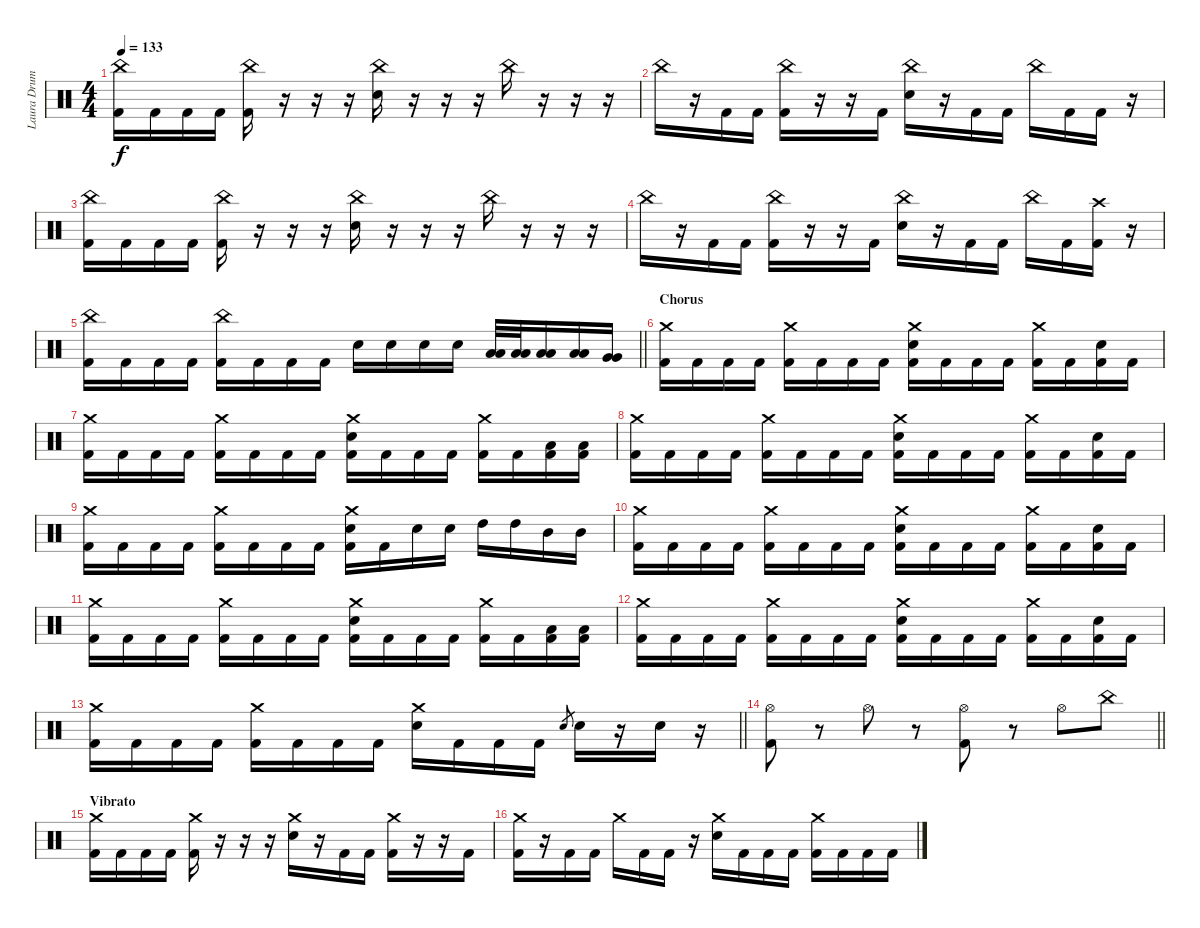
\track ("Laura Drums" "Laura Drum") {instrument percussion}
\staff {score}
\articulation defaults
\ts (4 4)
\tempo 133
\clef neutral
\ks c
("China (hit)" "Kick (hit) 2").16{dy f} "Kick (hit) 2".16 "Kick (hit) 2".16 "Kick (hit) 2".16 ("China (hit)" "Kick (hit) 2").16 r.16 r.16 r.16 ("China (hit)" "Electric Snare (hit)").16 r.16 r.16 r.16 "China (hit)".16 r.16 r.16 r.16 |
"China (hit)".16 r.16 "Kick (hit) 2".16 "Kick (hit) 2".16 ("China (hit)" "Kick (hit) 2").16 r.16 r.16 "Kick (hit) 2".16 ("China (hit)" "Electric Snare (hit)").16 r.16 "Kick (hit) 2".16 "Kick (hit) 2".16 "China (hit)".16 "Kick (hit) 2".16 "Kick (hit) 2".16 r.16 |
("China (hit)" "Kick (hit) 2").16 "Kick (hit) 2".16 "Kick (hit) 2".16 "Kick (hit) 2".16 ("China (hit)" "Kick (hit) 2").16 r.16 r.16 r.16 ("China (hit)" "Electric Snare (hit)").16 r.16 r.16 r.16 "China (hit)".16 r.16 r.16 r.16 |
"China (hit)".16 r.16 "Kick (hit) 2".16 "Kick (hit) 2".16 ("China (hit)" "Kick (hit) 2").16 r.16 r.16 "Kick (hit) 2".16 ("China (hit)" "Electric Snare (hit)").16 r.16 "Kick (hit) 2".16 "Kick (hit) 2".16 "China (hit)".16 "Kick (hit) 2".16 ("Crash high (hit)" "Kick (hit) 2").16 r.16 |
\barLineRight lightlight
("China (hit)" "Kick (hit) 2").16 "Kick (hit) 2".16 "Kick (hit) 2".16 "Kick (hit) 2".16 ("China (hit)" "Kick (hit) 2").16 "Kick (hit) 2".16 "Kick (hit) 2".16 "Kick (hit) 2".16 "Electric Snare (hit)".16 "Electric Snare (hit)".16 "Electric Snare (hit)".16 "Electric Snare (hit)".16 ("Low Tom (hit)" "Low Tom (hit)").32 ("Low Tom (hit)" "Low Tom (hit)").32 ("Low Tom (hit)" "Low Tom (hit)").16 ("Low Tom (hit)" "Low Tom (hit)").16 ("Very Low Tom (hit)" "Very Low Tom (hit)").16 |
\section ("" "Chorus")
("Crash medium (hit)" "Kick (hit) 2").16 "Kick (hit) 2".16 "Kick (hit) 2".16 "Kick (hit) 2".16 ("Crash medium (hit)" "Kick (hit) 2").16 "Kick (hit) 2".16 "Kick (hit) 2".16 "Kick (hit) 2".16 ("Crash medium (hit)" "Electric Snare (hit)" "Kick (hit) 2").16 "Kick (hit) 2".16 "Kick (hit) 2".16 "Kick (hit) 2".16 ("Crash medium (hit)" "Kick (hit) 2").16 "Kick (hit) 2".16 ("Electric Snare (hit)" "Kick (hit) 2").16 "Kick (hit) 2".16 |
("Crash medium (hit)" "Kick (hit) 2").16 "Kick (hit) 2".16 "Kick (hit) 2".16 "Kick (hit) 2".16 ("Crash medium (hit)" "Kick (hit) 2").16 "Kick (hit) 2".16 "Kick (hit) 2".16 "Kick (hit) 2".16 ("Crash medium (hit)" "Electric Snare (hit)" "Kick (hit) 2").16 "Kick (hit) 2".16 "Kick (hit) 2".16 "Kick (hit) 2".16 ("Crash medium (hit)" "Kick (hit) 2").16 "Kick (hit) 2".16 ("Low Tom (hit)" "Kick (hit) 2").16 ("Low Tom (hit)" "Kick (hit) 2").16 |
("Crash medium (hit)" "Kick (hit) 2").16 "Kick (hit) 2".16 "Kick (hit) 2".16 "Kick (hit) 2".16 ("Crash medium (hit)" "Kick (hit) 2").16 "Kick (hit) 2".16 "Kick (hit) 2".16 "Kick (hit) 2".16 ("Crash medium (hit)" "Electric Snare (hit)" "Kick (hit) 2").16 "Kick (hit) 2".16 "Kick (hit) 2".16 "Kick (hit) 2".16 ("Crash medium (hit)" "Kick (hit) 2").16 "Kick (hit) 2".16 ("Electric Snare (hit)" "Kick (hit) 2").16 "Kick (hit) 2".16 |
("Crash medium (hit)" "Kick (hit) 2").16 "Kick (hit) 2".16 "Kick (hit) 2".16 "Kick (hit) 2".16 ("Crash medium (hit)" "Kick (hit) 2").16 "Kick (hit) 2".16 "Kick (hit) 2".16 "Kick (hit) 2".16 ("Crash medium (hit)" "Electric Snare (hit)" "Kick (hit) 2").16 "Kick (hit) 2".16 "Electric Snare (hit)".16 "Electric Snare (hit)".16 "High Tom (hit)".16 "High Tom (hit)".16 "Mid Tom (hit)".16 "Mid Tom (hit)".16 |
("Crash medium (hit)" "Kick (hit) 2").16 "Kick (hit) 2".16 "Kick (hit) 2".16 "Kick (hit) 2".16 ("Crash medium (hit)" "Kick (hit) 2").16 "Kick (hit) 2".16 "Kick (hit) 2".16 "Kick (hit) 2".16 ("Crash medium (hit)" "Electric Snare (hit)" "Kick (hit) 2").16 "Kick (hit) 2".16 "Kick (hit) 2".16 "Kick (hit) 2".16 ("Crash medium (hit)" "Kick (hit) 2").16 "Kick (hit) 2".16 ("Electric Snare (hit)" "Kick (hit) 2").16 "Kick (hit) 2".16 |
("Crash medium (hit)" "Kick (hit) 2").16 "Kick (hit) 2".16 "Kick (hit) 2".16 "Kick (hit) 2".16 ("Crash medium (hit)" "Kick (hit) 2").16 "Kick (hit) 2".16 "Kick (hit) 2".16 "Kick (hit) 2".16 ("Crash medium (hit)" "Electric Snare (hit)" "Kick (hit) 2").16 "Kick (hit) 2".16 "Kick (hit) 2".16 "Kick (hit) 2".16 ("Crash medium (hit)" "Kick (hit) 2").16 "Kick (hit) 2".16 ("Low Tom (hit)" "Kick (hit) 2").16 ("Low Tom (hit)" "Kick (hit) 2").16 |
("Crash medium (hit)" "Kick (hit) 2").16 "Kick (hit) 2".16 "Kick (hit) 2".16 "Kick (hit) 2".16 ("Crash medium (hit)" "Kick (hit) 2").16 "Kick (hit) 2".16 "Kick (hit) 2".16 "Kick (hit) 2".16 ("Crash medium (hit)" "Electric Snare (hit)" "Kick (hit) 2").16 "Kick (hit) 2".16 "Kick (hit) 2".16 "Kick (hit) 2".16 ("Crash medium (hit)" "Kick (hit) 2").16 "Kick (hit) 2".16 ("Electric Snare (hit)" "Kick (hit) 2").16 "Kick (hit) 2".16 |
\barLineRight lightlight
("Crash medium (hit)" "Kick (hit) 2").16 "Kick (hit) 2".16 "Kick (hit) 2".16 "Kick (hit) 2".16 ("Crash medium (hit)" "Kick (hit) 2").16 "Kick (hit) 2".16 "Kick (hit) 2".16 "Kick (hit) 2".16 ("Crash medium (hit)" "Electric Snare (hit)").16 "Kick (hit) 2".16 "Kick (hit) 2".16 "Kick (hit) 2".16 "Electric Snare (hit)".8{gr} "Electric Snare (hit)".16 r.16 "Electric Snare (hit)".16 r.16 |
\section ("" "")
\barLineRight lightlight
("Hi-Hat (open)" "Kick (hit) 2").8 r.8 "Hi-Hat (open)".8 r.8 ("Hi-Hat (open)" "Kick (hit) 2").8 r.8 "Hi-Hat (open)".8 "China (hit)".8 |
\section ("" "Vibrato")
("Crash medium (hit)" "Kick (hit) 2").16 "Kick (hit) 2".16 "Kick (hit) 2".16 "Kick (hit) 2".16 ("Crash medium (hit)" "Kick (hit) 2").16 r.16 r.16 r.16 ("Crash medium (hit)" "Electric Snare (hit)").16 r.16 "Kick (hit) 2".16 "Kick (hit) 2".16 ("Crash medium (hit)" "Kick (hit) 2").16 r.16 r.16 "Kick (hit) 2".16 |
("Crash medium (hit)" "Kick (hit) 2").16 r.16 "Kick (hit) 2".16 "Kick (hit) 2".16 "Crash medium (hit)".16 "Kick (hit) 2".16 "Kick (hit) 2".16 r.16 ("Crash medium (hit)" "Electric Snare (hit)").16 "Kick (hit) 2".16 "Kick (hit) 2".16 "Kick (hit) 2".16 ("Crash medium (hit)" "Kick (hit) 2").16 "Kick (hit) 2".16 "Kick (hit) 2".16 "Kick (hit) 2".16
